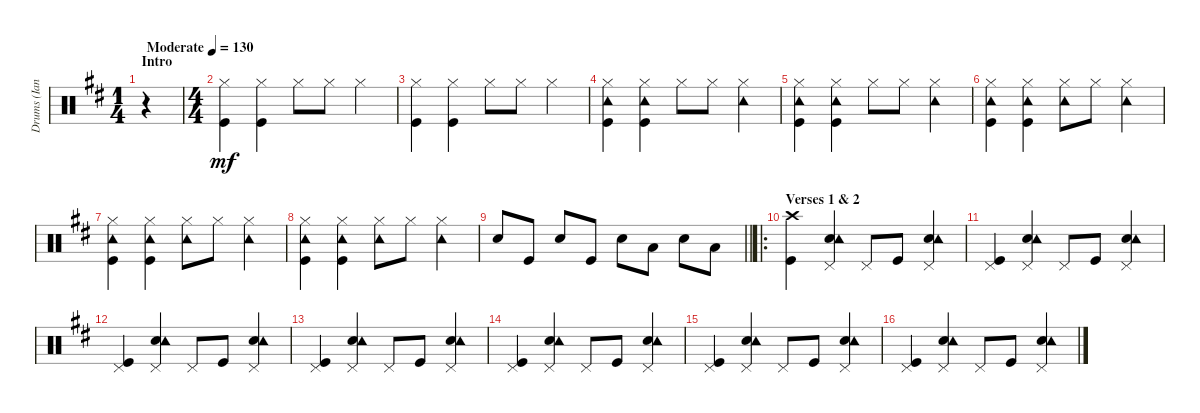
\track ("Drums (Ian Paice)" "Drums (Ian") {instrument percussion}
\staff {score}
\articulation defaults
\ts (1 4)
\section ("" "Intro")
\tempo (130 "Moderate")
\clef neutral
\ks bminor
r.4{dy mf} |
\ts (4 4)
("Hi-Hat (closed)" "Kick (hit)").4 ("Hi-Hat (closed)" "Kick (hit)").4 "Hi-Hat (closed)".8 "Hi-Hat (closed)".8 "Hi-Hat (closed)".4 |
("Hi-Hat (closed)" "Kick (hit)").4 ("Hi-Hat (closed)" "Kick (hit)").4 "Hi-Hat (closed)".8 "Hi-Hat (closed)".8 "Hi-Hat (closed)".4 |
("Hi-Hat (closed)" "Tambourine (hit)" "Kick (hit)").4 ("Hi-Hat (closed)" "Tambourine (hit)" "Kick (hit)").4 "Hi-Hat (closed)".8 "Hi-Hat (closed)".8 ("Hi-Hat (closed)" "Tambourine (hit)").4 |
("Hi-Hat (closed)" "Tambourine (hit)" "Kick (hit)").4 ("Hi-Hat (closed)" "Tambourine (hit)" "Kick (hit)").4 "Hi-Hat (closed)".8 "Hi-Hat (closed)".8 ("Hi-Hat (closed)" "Tambourine (hit)").4 |
("Hi-Hat (closed)" "Tambourine (hit)" "Kick (hit)").4 ("Hi-Hat (closed)" "Tambourine (hit)" "Kick (hit)").4 ("Hi-Hat (closed)" "Tambourine (hit)").8 "Hi-Hat (closed)".8 ("Hi-Hat (closed)" "Tambourine (hit)").4 |
("Hi-Hat (closed)" "Tambourine (hit)" "Kick (hit)").4 ("Hi-Hat (closed)" "Tambourine (hit)" "Kick (hit)").4 ("Hi-Hat (closed)" "Tambourine (hit)").8 "Hi-Hat (closed)".8 ("Hi-Hat (closed)" "Tambourine (hit)").4 |
("Hi-Hat (closed)" "Tambourine (hit)" "Kick (hit)").4 ("Hi-Hat (closed)" "Tambourine (hit)" "Kick (hit)").4 ("Hi-Hat (closed)" "Tambourine (hit)").8 "Hi-Hat (closed)".8 ("Hi-Hat (closed)" "Tambourine (hit)").4 |
\barLineRight lightlight "Electric Snare (hit)".8 "Kick (hit)".8 "Electric Snare (hit)".8 "Kick (hit)".8 "Electric Snare (hit)".8 "Low Tom (hit)".8 "Electric Snare (hit)".8 "Low Tom (hit)".8
|
\ro
\section ("" "Verses 1 & 2")
("Crash high (hit)" "Kick (hit)").4 ("Pedal Hi-Hat (hit)" "Electric Snare (hit)" "Tambourine (hit)").4 "Pedal Hi-Hat (hit)".8 "Kick (hit)".8 ("Pedal Hi-Hat (hit)" "Electric Snare (hit)" "Tambourine (hit)").4 |
("Pedal Hi-Hat (hit)" "Kick (hit)").4 ("Pedal Hi-Hat (hit)" "Electric Snare (hit)" "Tambourine (hit)").4 "Pedal Hi-Hat (hit)".8 "Kick (hit)".8 ("Pedal Hi-Hat (hit)" "Electric Snare (hit)" "Tambourine (hit)").4 |
("Pedal Hi-Hat (hit)" "Kick (hit)").4 ("Pedal Hi-Hat (hit)" "Electric Snare (hit)" "Tambourine (hit)").4 "Pedal Hi-Hat (hit)".8 "Kick (hit)".8 ("Pedal Hi-Hat (hit)" "Electric Snare (hit)" "Tambourine (hit)").4 |
("Pedal Hi-Hat (hit)" "Kick (hit)").4 ("Pedal Hi-Hat (hit)" "Electric Snare (hit)" "Tambourine (hit)").4 "Pedal Hi-Hat (hit)".8 "Kick (hit)".8 ("Pedal Hi-Hat (hit)" "Electric Snare (hit)" "Tambourine (hit)").4 |
("Pedal Hi-Hat (hit)" "Kick (hit)").4 ("Pedal Hi-Hat (hit)" "Electric Snare (hit)" "Tambourine (hit)").4 "Pedal Hi-Hat (hit)".8 "Kick (hit)".8 ("Pedal Hi-Hat (hit)" "Electric Snare (hit)" "Tambourine (hit)").4 |
("Pedal Hi-Hat (hit)" "Kick (hit)").4 ("Pedal Hi-Hat (hit)" "Electric Snare (hit)" "Tambourine (hit)").4 "Pedal Hi-Hat (hit)".8 "Kick (hit)".8 ("Pedal Hi-Hat (hit)" "Electric Snare (hit)" "Tambourine (hit)").4 |
("Pedal Hi-Hat (hit)" "Kick (hit)").4 ("Pedal Hi-Hat (hit)" "Electric Snare (hit)" "Tambourine (hit)").4 "Pedal Hi-Hat (hit)".8 "Kick (hit)".8 ("Pedal Hi-Hat (hit)" "Electric Snare (hit)" "Tambourine (hit)").4
